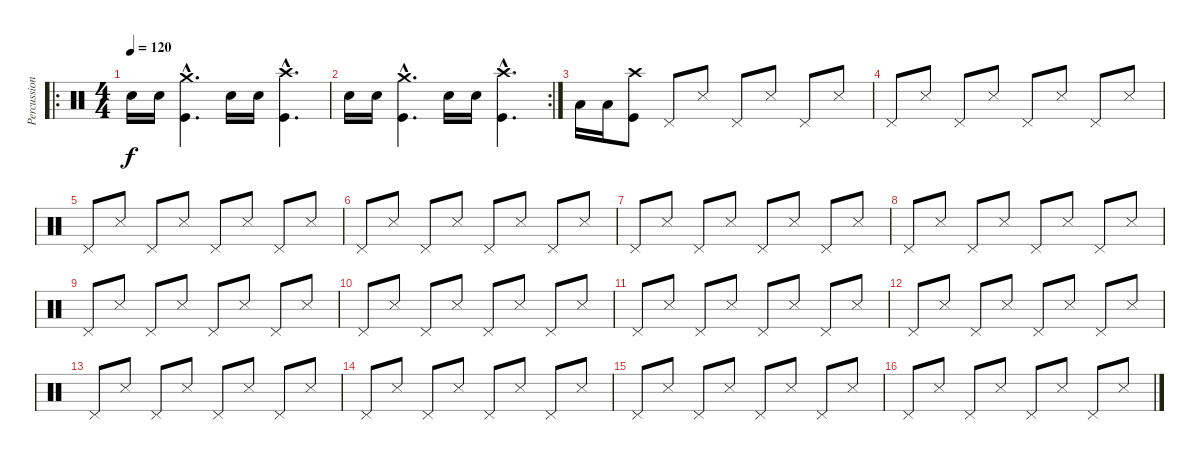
\track ("Percussion" "Percussion") {instrument percussion}
\staff {score}
\articulation defaults
\ro
\ts (4 4)
\tempo 120
\clef neutral
\ks c "Snare (hit) 2".16{dy f} "Snare (hit) 2".16
("Kick (hit)"{hac} "Crash medium (hit)"{hac}).4{d} "Snare (hit) 2".16 "Snare (hit) 2".16 ("Kick (hit)"{hac} "Crash high (hit)"{hac}).4{d} |
\rc 2 "Snare (hit) 2".16 "Snare (hit) 2".16
("Kick (hit)"{hac} "Crash medium (hit)"{hac}).4{d} "Snare (hit) 2".16 "Snare (hit) 2".16 ("Kick (hit)"{hac} "Crash high (hit)"{hac}).4{d} |
"Low Floor Tom (hit)".16 "Low Floor Tom (hit)".16 ("Kick (hit)" "Crash high (hit)").8 "Pedal Hi-Hat (hit)".8 "Snare (side stick) 3".8 "Pedal Hi-Hat (hit)".8 "Snare (side stick) 3".8 "Pedal Hi-Hat (hit)".8 "Snare (side stick) 3".8 |
"Pedal Hi-Hat (hit)".8 "Snare (side stick) 3".8 "Pedal Hi-Hat (hit)".8 "Snare (side stick) 3".8 "Pedal Hi-Hat (hit)".8 "Snare (side stick) 3".8 "Pedal Hi-Hat (hit)".8 "Snare (side stick) 3".8 |
"Pedal Hi-Hat (hit)".8 "Snare (side stick) 3".8 "Pedal Hi-Hat (hit)".8 "Snare (side stick) 3".8 "Pedal Hi-Hat (hit)".8 "Snare (side stick) 3".8 "Pedal Hi-Hat (hit)".8 "Snare (side stick) 3".8 |
"Pedal Hi-Hat (hit)".8 "Snare (side stick) 3".8 "Pedal Hi-Hat (hit)".8 "Snare (side stick) 3".8 "Pedal Hi-Hat (hit)".8 "Snare (side stick) 3".8 "Pedal Hi-Hat (hit)".8 "Snare (side stick) 3".8 |
"Pedal Hi-Hat (hit)".8 "Snare (side stick) 3".8 "Pedal Hi-Hat (hit)".8 "Snare (side stick) 3".8 "Pedal Hi-Hat (hit)".8 "Snare (side stick) 3".8 "Pedal Hi-Hat (hit)".8 "Snare (side stick) 3".8 |
"Pedal Hi-Hat (hit)".8 "Snare (side stick) 3".8 "Pedal Hi-Hat (hit)".8 "Snare (side stick) 3".8 "Pedal Hi-Hat (hit)".8 "Snare (side stick) 3".8 "Pedal Hi-Hat (hit)".8 "Snare (side stick) 3".8 |
"Pedal Hi-Hat (hit)".8 "Snare (side stick) 3".8 "Pedal Hi-Hat (hit)".8 "Snare (side stick) 3".8 "Pedal Hi-Hat (hit)".8 "Snare (side stick) 3".8 "Pedal Hi-Hat (hit)".8 "Snare (side stick) 3".8 |
"Pedal Hi-Hat (hit)".8 "Snare (side stick) 3".8 "Pedal Hi-Hat (hit)".8 "Snare (side stick) 3".8 "Pedal Hi-Hat (hit)".8 "Snare (side stick) 3".8 "Pedal Hi-Hat (hit)".8 "Snare (side stick) 3".8 |
"Pedal Hi-Hat (hit)".8 "Snare (side stick) 3".8 "Pedal Hi-Hat (hit)".8 "Snare (side stick) 3".8 "Pedal Hi-Hat (hit)".8 "Snare (side stick) 3".8 "Pedal Hi-Hat (hit)".8 "Snare (side stick) 3".8 |
"Pedal Hi-Hat (hit)".8 "Snare (side stick) 3".8 "Pedal Hi-Hat (hit)".8 "Snare (side stick) 3".8 "Pedal Hi-Hat (hit)".8 "Snare (side stick) 3".8 "Pedal Hi-Hat (hit)".8 "Snare (side stick) 3".8 |
"Pedal Hi-Hat (hit)".8 "Snare (side stick) 3".8 "Pedal Hi-Hat (hit)".8 "Snare (side stick) 3".8 "Pedal Hi-Hat (hit)".8 "Snare (side stick) 3".8 "Pedal Hi-Hat (hit)".8 "Snare (side stick) 3".8 |
"Pedal Hi-Hat (hit)".8 "Snare (side stick) 3".8 "Pedal Hi-Hat (hit)".8 "Snare (side stick) 3".8 "Pedal Hi-Hat (hit)".8 "Snare (side stick) 3".8 "Pedal Hi-Hat (hit)".8 "Snare (side stick) 3".8 |
"Pedal Hi-Hat (hit)".8 "Snare (side stick) 3".8 "Pedal Hi-Hat (hit)".8 "Snare (side stick) 3".8 "Pedal Hi-Hat (hit)".8 "Snare (side stick) 3".8 "Pedal Hi-Hat (hit)".8 "Snare (side stick) 3".8 |
"Pedal Hi-Hat (hit)".8 "Snare (side stick) 3".8 "Pedal Hi-Hat (hit)".8 "Snare (side stick) 3".8 "Pedal Hi-Hat (hit)".8 "Snare (side stick) 3".8 "Pedal Hi-Hat (hit)".8 "Snare (side stick) 3".8
